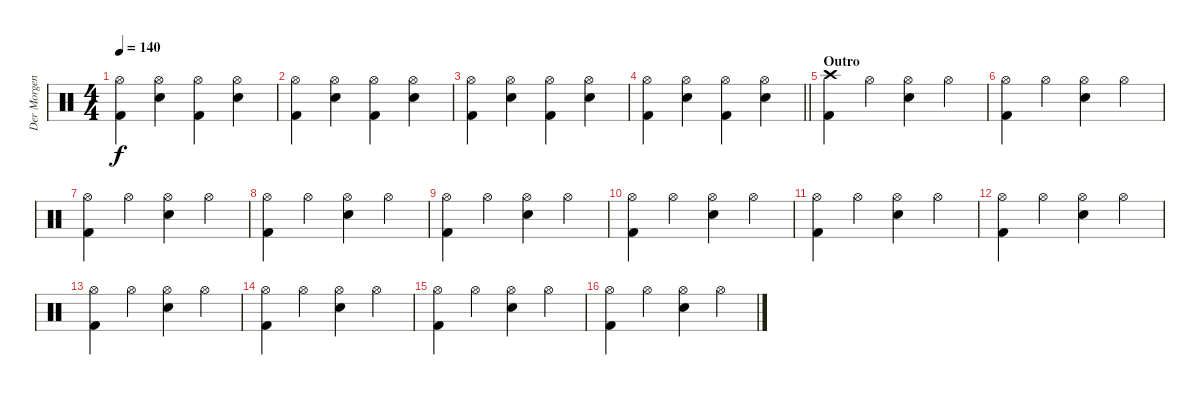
\track ("Der Morgenstern" "Der Morgen") {instrument percussion}
\staff {score}
\articulation defaults
\ts (4 4)
\tempo 140
\clef neutral
\ks c
("Hi-Hat (open)" "Kick (hit) 2").4{dy f} ("Hi-Hat (open)" "Electric Snare (hit)").4 ("Hi-Hat (open)" "Kick (hit) 2").4 ("Hi-Hat (open)" "Electric Snare (hit)").4 |
("Hi-Hat (open)" "Kick (hit) 2").4 ("Hi-Hat (open)" "Electric Snare (hit)").4 ("Hi-Hat (open)" "Kick (hit) 2").4 ("Hi-Hat (open)" "Electric Snare (hit)").4 |
("Hi-Hat (open)" "Kick (hit) 2").4 ("Hi-Hat (open)" "Electric Snare (hit)").4 ("Hi-Hat (open)" "Kick (hit) 2").4 ("Hi-Hat (open)" "Electric Snare (hit)").4 |
\barLineRight lightlight
("Hi-Hat (open)" "Kick (hit) 2").4 ("Hi-Hat (open)" "Electric Snare (hit)").4 ("Hi-Hat (open)" "Kick (hit) 2").4 ("Hi-Hat (open)" "Electric Snare (hit)").4 |
\section ("" "Outro")
("Crash high (hit)" "Kick (hit) 2").4 "Hi-Hat (open)".4 ("Hi-Hat (open)" "Electric Snare (hit)").4 "Hi-Hat (open)".4 |
("Hi-Hat (open)" "Kick (hit) 2").4 "Hi-Hat (open)".4 ("Hi-Hat (open)" "Electric Snare (hit)").4 "Hi-Hat (open)".4 |
("Hi-Hat (open)" "Kick (hit) 2").4 "Hi-Hat (open)".4 ("Hi-Hat (open)" "Electric Snare (hit)").4 "Hi-Hat (open)".4 |
("Hi-Hat (open)" "Kick (hit) 2").4 "Hi-Hat (open)".4 ("Hi-Hat (open)" "Electric Snare (hit)").4 "Hi-Hat (open)".4 |
("Hi-Hat (open)" "Kick (hit) 2").4 "Hi-Hat (open)".4 ("Hi-Hat (open)" "Electric Snare (hit)").4 "Hi-Hat (open)".4 |
("Hi-Hat (open)" "Kick (hit) 2").4 "Hi-Hat (open)".4 ("Hi-Hat (open)" "Electric Snare (hit)").4 "Hi-Hat (open)".4 |
("Hi-Hat (open)" "Kick (hit) 2").4 "Hi-Hat (open)".4 ("Hi-Hat (open)" "Electric Snare (hit)").4 "Hi-Hat (open)".4 |
("Hi-Hat (open)" "Kick (hit) 2").4 "Hi-Hat (open)".4 ("Hi-Hat (open)" "Electric Snare (hit)").4 "Hi-Hat (open)".4 |
("Hi-Hat (open)" "Kick (hit) 2").4 "Hi-Hat (open)".4 ("Hi-Hat (open)" "Electric Snare (hit)").4 "Hi-Hat (open)".4 |
("Hi-Hat (open)" "Kick (hit) 2").4 "Hi-Hat (open)".4 ("Hi-Hat (open)" "Electric Snare (hit)").4 "Hi-Hat (open)".4 |
("Hi-Hat (open)" "Kick (hit) 2").4 "Hi-Hat (open)".4 ("Hi-Hat (open)" "Electric Snare (hit)").4 "Hi-Hat (open)".4 |
("Hi-Hat (open)" "Kick (hit) 2").4 "Hi-Hat (open)".4 ("Hi-Hat (open)" "Electric Snare (hit)").4 "Hi-Hat (open)".4
